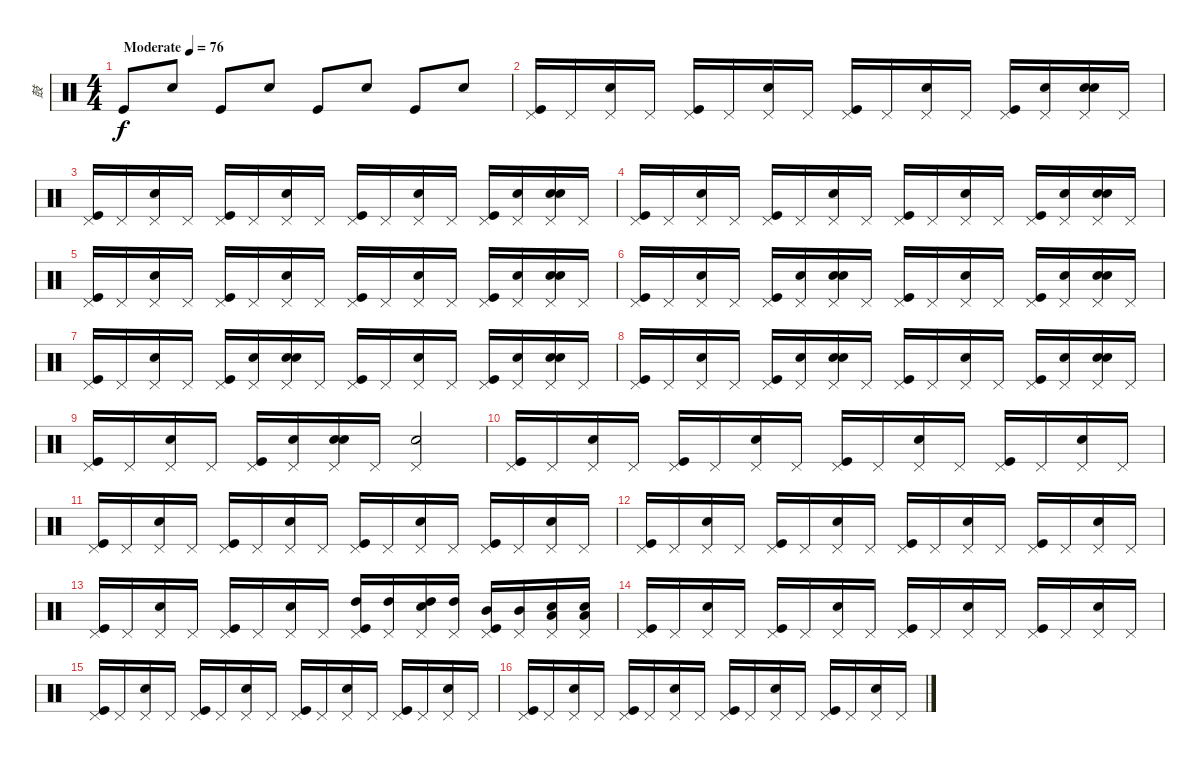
\track ("鼓" "鼓") {instrument percussion}
\staff {score}
\articulation defaults
\ts (4 4)
\tempo (76 "Moderate")
\clef neutral
\ks c "Kick (hit)".8{dy f} "Snare (hit) 2".8 "Kick (hit)".8 "Snare (hit) 2".8 "Kick (hit)".8 "Snare (hit) 2".8 "Kick (hit)".8 "Snare (hit) 2".8
|
("Pedal Hi-Hat (hit)" "Kick (hit)").16 "Pedal Hi-Hat (hit)".16 ("Pedal Hi-Hat (hit)" "Snare (hit) 2").16 "Pedal Hi-Hat (hit)".16 ("Pedal Hi-Hat (hit)" "Kick (hit)").16 "Pedal Hi-Hat (hit)".16 ("Pedal Hi-Hat (hit)" "Snare (hit) 2").16 "Pedal Hi-Hat (hit)".16 ("Pedal Hi-Hat (hit)" "Kick (hit)").16 "Pedal Hi-Hat (hit)".16 ("Pedal Hi-Hat (hit)" "Snare (hit) 2").16 "Pedal Hi-Hat (hit)".16 ("Pedal Hi-Hat (hit)" "Kick (hit)").16 ("Pedal Hi-Hat (hit)" "Hand Clap (hit)").16 ("Pedal Hi-Hat (hit)" "Hand Clap (hit)" "Snare (hit) 2").16 "Pedal Hi-Hat (hit)".16 |
("Pedal Hi-Hat (hit)" "Kick (hit)").16 "Pedal Hi-Hat (hit)".16 ("Pedal Hi-Hat (hit)" "Snare (hit) 2").16 "Pedal Hi-Hat (hit)".16 ("Pedal Hi-Hat (hit)" "Kick (hit)").16 "Pedal Hi-Hat (hit)".16 ("Pedal Hi-Hat (hit)" "Snare (hit) 2").16 "Pedal Hi-Hat (hit)".16 ("Pedal Hi-Hat (hit)" "Kick (hit)").16 "Pedal Hi-Hat (hit)".16 ("Pedal Hi-Hat (hit)" "Snare (hit) 2").16 "Pedal Hi-Hat (hit)".16 ("Pedal Hi-Hat (hit)" "Kick (hit)").16 ("Pedal Hi-Hat (hit)" "Hand Clap (hit)").16 ("Pedal Hi-Hat (hit)" "Hand Clap (hit)" "Snare (hit) 2").16 "Pedal Hi-Hat (hit)".16 |
("Pedal Hi-Hat (hit)" "Kick (hit)").16 "Pedal Hi-Hat (hit)".16 ("Pedal Hi-Hat (hit)" "Snare (hit) 2").16 "Pedal Hi-Hat (hit)".16 ("Pedal Hi-Hat (hit)" "Kick (hit)").16 "Pedal Hi-Hat (hit)".16 ("Pedal Hi-Hat (hit)" "Snare (hit) 2").16 "Pedal Hi-Hat (hit)".16 ("Pedal Hi-Hat (hit)" "Kick (hit)").16 "Pedal Hi-Hat (hit)".16 ("Pedal Hi-Hat (hit)" "Snare (hit) 2").16 "Pedal Hi-Hat (hit)".16 ("Pedal Hi-Hat (hit)" "Kick (hit)").16 ("Pedal Hi-Hat (hit)" "Hand Clap (hit)").16 ("Pedal Hi-Hat (hit)" "Hand Clap (hit)" "Snare (hit) 2").16 "Pedal Hi-Hat (hit)".16 |
("Pedal Hi-Hat (hit)" "Kick (hit)").16 "Pedal Hi-Hat (hit)".16 ("Pedal Hi-Hat (hit)" "Snare (hit) 2").16 "Pedal Hi-Hat (hit)".16 ("Pedal Hi-Hat (hit)" "Kick (hit)").16 "Pedal Hi-Hat (hit)".16 ("Pedal Hi-Hat (hit)" "Snare (hit) 2").16 "Pedal Hi-Hat (hit)".16 ("Pedal Hi-Hat (hit)" "Kick (hit)").16 "Pedal Hi-Hat (hit)".16 ("Pedal Hi-Hat (hit)" "Snare (hit) 2").16 "Pedal Hi-Hat (hit)".16 ("Pedal Hi-Hat (hit)" "Kick (hit)").16 ("Pedal Hi-Hat (hit)" "Hand Clap (hit)").16 ("Pedal Hi-Hat (hit)" "Hand Clap (hit)" "Snare (hit) 2").16 "Pedal Hi-Hat (hit)".16 |
("Pedal Hi-Hat (hit)" "Kick (hit)").16 "Pedal Hi-Hat (hit)".16 ("Pedal Hi-Hat (hit)" "Snare (hit) 2").16 "Pedal Hi-Hat (hit)".16 ("Pedal Hi-Hat (hit)" "Kick (hit)").16 ("Pedal Hi-Hat (hit)" "Hand Clap (hit)").16 ("Pedal Hi-Hat (hit)" "Hand Clap (hit)" "Snare (hit) 2").16 "Pedal Hi-Hat (hit)".16 ("Pedal Hi-Hat (hit)" "Kick (hit)").16 "Pedal Hi-Hat (hit)".16 ("Pedal Hi-Hat (hit)" "Snare (hit) 2").16 "Pedal Hi-Hat (hit)".16 ("Pedal Hi-Hat (hit)" "Kick (hit)").16 ("Pedal Hi-Hat (hit)" "Hand Clap (hit)").16 ("Pedal Hi-Hat (hit)" "Hand Clap (hit)" "Snare (hit) 2").16 "Pedal Hi-Hat (hit)".16 |
("Pedal Hi-Hat (hit)" "Kick (hit)").16 "Pedal Hi-Hat (hit)".16 ("Pedal Hi-Hat (hit)" "Snare (hit) 2").16 "Pedal Hi-Hat (hit)".16 ("Pedal Hi-Hat (hit)" "Kick (hit)").16 ("Pedal Hi-Hat (hit)" "Hand Clap (hit)").16 ("Pedal Hi-Hat (hit)" "Hand Clap (hit)" "Snare (hit) 2").16 "Pedal Hi-Hat (hit)".16 ("Pedal Hi-Hat (hit)" "Kick (hit)").16 "Pedal Hi-Hat (hit)".16 ("Pedal Hi-Hat (hit)" "Snare (hit) 2").16 "Pedal Hi-Hat (hit)".16 ("Pedal Hi-Hat (hit)" "Kick (hit)").16 ("Pedal Hi-Hat (hit)" "Hand Clap (hit)").16 ("Pedal Hi-Hat (hit)" "Hand Clap (hit)" "Snare (hit) 2").16 "Pedal Hi-Hat (hit)".16 |
("Pedal Hi-Hat (hit)" "Kick (hit)").16 "Pedal Hi-Hat (hit)".16 ("Pedal Hi-Hat (hit)" "Snare (hit) 2").16 "Pedal Hi-Hat (hit)".16 ("Pedal Hi-Hat (hit)" "Kick (hit)").16 ("Pedal Hi-Hat (hit)" "Hand Clap (hit)").16 ("Pedal Hi-Hat (hit)" "Hand Clap (hit)" "Snare (hit) 2").16 "Pedal Hi-Hat (hit)".16 ("Pedal Hi-Hat (hit)" "Kick (hit)").16 "Pedal Hi-Hat (hit)".16 ("Pedal Hi-Hat (hit)" "Snare (hit) 2").16 "Pedal Hi-Hat (hit)".16 ("Pedal Hi-Hat (hit)" "Kick (hit)").16 ("Pedal Hi-Hat (hit)" "Hand Clap (hit)").16 ("Pedal Hi-Hat (hit)" "Hand Clap (hit)" "Snare (hit) 2").16 "Pedal Hi-Hat (hit)".16 |
("Pedal Hi-Hat (hit)" "Kick (hit)").16 "Pedal Hi-Hat (hit)".16 ("Pedal Hi-Hat (hit)" "Snare (hit) 2").16 "Pedal Hi-Hat (hit)".16 ("Pedal Hi-Hat (hit)" "Kick (hit)").16 ("Pedal Hi-Hat (hit)" "Hand Clap (hit)").16 ("Pedal Hi-Hat (hit)" "Hand Clap (hit)" "Snare (hit) 2").16 "Pedal Hi-Hat (hit)".16 ("Pedal Hi-Hat (hit)" "Snare (hit) 2").2 |
("Pedal Hi-Hat (hit)" "Kick (hit)").16 "Pedal Hi-Hat (hit)".16 ("Pedal Hi-Hat (hit)" "Snare (hit) 2").16 "Pedal Hi-Hat (hit)".16 ("Pedal Hi-Hat (hit)" "Kick (hit)").16 "Pedal Hi-Hat (hit)".16 ("Pedal Hi-Hat (hit)" "Snare (hit) 2").16 "Pedal Hi-Hat (hit)".16 ("Pedal Hi-Hat (hit)" "Kick (hit)").16 "Pedal Hi-Hat (hit)".16 ("Pedal Hi-Hat (hit)" "Snare (hit) 2").16 "Pedal Hi-Hat (hit)".16 ("Pedal Hi-Hat (hit)" "Kick (hit)").16 "Pedal Hi-Hat (hit)".16 ("Pedal Hi-Hat (hit)" "Snare (hit) 2").16 "Pedal Hi-Hat (hit)".16 |
("Pedal Hi-Hat (hit)" "Kick (hit)").16 "Pedal Hi-Hat (hit)".16 ("Pedal Hi-Hat (hit)" "Snare (hit) 2").16 "Pedal Hi-Hat (hit)".16 ("Pedal Hi-Hat (hit)" "Kick (hit)").16 "Pedal Hi-Hat (hit)".16 ("Pedal Hi-Hat (hit)" "Snare (hit) 2").16 "Pedal Hi-Hat (hit)".16 ("Pedal Hi-Hat (hit)" "Kick (hit)").16 "Pedal Hi-Hat (hit)".16 ("Pedal Hi-Hat (hit)" "Snare (hit) 2").16 "Pedal Hi-Hat (hit)".16 ("Pedal Hi-Hat (hit)" "Kick (hit)").16 "Pedal Hi-Hat (hit)".16 ("Pedal Hi-Hat (hit)" "Snare (hit) 2").16 "Pedal Hi-Hat (hit)".16 |
("Pedal Hi-Hat (hit)" "Kick (hit)").16 "Pedal Hi-Hat (hit)".16 ("Pedal Hi-Hat (hit)" "Snare (hit) 2").16 "Pedal Hi-Hat (hit)".16 ("Pedal Hi-Hat (hit)" "Kick (hit)").16 "Pedal Hi-Hat (hit)".16 ("Pedal Hi-Hat (hit)" "Snare (hit) 2").16 "Pedal Hi-Hat (hit)".16 ("Pedal Hi-Hat (hit)" "Kick (hit)").16 "Pedal Hi-Hat (hit)".16 ("Pedal Hi-Hat (hit)" "Snare (hit) 2").16 "Pedal Hi-Hat (hit)".16 ("Pedal Hi-Hat (hit)" "Kick (hit)").16 "Pedal Hi-Hat (hit)".16 ("Pedal Hi-Hat (hit)" "Snare (hit) 2").16 "Pedal Hi-Hat (hit)".16 |
("Pedal Hi-Hat (hit)" "Kick (hit)").16 "Pedal Hi-Hat (hit)".16 ("Pedal Hi-Hat (hit)" "Snare (hit) 2").16 "Pedal Hi-Hat (hit)".16 ("Pedal Hi-Hat (hit)" "Kick (hit)").16 "Pedal Hi-Hat (hit)".16 ("Pedal Hi-Hat (hit)" "Snare (hit) 2").16 "Pedal Hi-Hat (hit)".16 ("Pedal Hi-Hat (hit)" "High Tom (hit)" "Kick (hit)").16 ("Pedal Hi-Hat (hit)" "High Tom (hit)").16 ("Pedal Hi-Hat (hit)" "High Tom (hit)" "Snare (hit) 2").16 ("Pedal Hi-Hat (hit)" "High Tom (hit)").16 ("Pedal Hi-Hat (hit)" "Mid Tom (hit)" "Kick (hit)").16 ("Pedal Hi-Hat (hit)" "Mid Tom (hit)").16 ("Pedal Hi-Hat (hit)" "Low Tom (hit)" "Snare (hit) 2").16 ("Pedal Hi-Hat (hit)" "Low Tom (hit)" "Snare (hit) 2").16 |
("Pedal Hi-Hat (hit)" "Kick (hit)").16 "Pedal Hi-Hat (hit)".16 ("Pedal Hi-Hat (hit)" "Snare (hit) 2").16 "Pedal Hi-Hat (hit)".16 ("Pedal Hi-Hat (hit)" "Kick (hit)").16 "Pedal Hi-Hat (hit)".16 ("Pedal Hi-Hat (hit)" "Snare (hit) 2").16 "Pedal Hi-Hat (hit)".16 ("Pedal Hi-Hat (hit)" "Kick (hit)").16 "Pedal Hi-Hat (hit)".16 ("Pedal Hi-Hat (hit)" "Snare (hit) 2").16 "Pedal Hi-Hat (hit)".16 ("Pedal Hi-Hat (hit)" "Kick (hit)").16 "Pedal Hi-Hat (hit)".16 ("Pedal Hi-Hat (hit)" "Snare (hit) 2").16 "Pedal Hi-Hat (hit)".16 |
("Pedal Hi-Hat (hit)" "Kick (hit)").16 "Pedal Hi-Hat (hit)".16 ("Pedal Hi-Hat (hit)" "Snare (hit) 2").16 "Pedal Hi-Hat (hit)".16 ("Pedal Hi-Hat (hit)" "Kick (hit)").16 "Pedal Hi-Hat (hit)".16 ("Pedal Hi-Hat (hit)" "Snare (hit) 2").16 "Pedal Hi-Hat (hit)".16 ("Pedal Hi-Hat (hit)" "Kick (hit)").16 "Pedal Hi-Hat (hit)".16 ("Pedal Hi-Hat (hit)" "Snare (hit) 2").16 "Pedal Hi-Hat (hit)".16 ("Pedal Hi-Hat (hit)" "Kick (hit)").16 "Pedal Hi-Hat (hit)".16 ("Pedal Hi-Hat (hit)" "Snare (hit) 2").16 "Pedal Hi-Hat (hit)".16 |
("Pedal Hi-Hat (hit)" "Kick (hit)").16 "Pedal Hi-Hat (hit)".16 ("Pedal Hi-Hat (hit)" "Snare (hit) 2").16 "Pedal Hi-Hat (hit)".16 ("Pedal Hi-Hat (hit)" "Kick (hit)").16 "Pedal Hi-Hat (hit)".16 ("Pedal Hi-Hat (hit)" "Snare (hit) 2").16 "Pedal Hi-Hat (hit)".16 ("Pedal Hi-Hat (hit)" "Kick (hit)").16 "Pedal Hi-Hat (hit)".16 ("Pedal Hi-Hat (hit)" "Snare (hit) 2").16 "Pedal Hi-Hat (hit)".16 ("Pedal Hi-Hat (hit)" "Kick (hit)").16 "Pedal Hi-Hat (hit)".16 ("Pedal Hi-Hat (hit)" "Snare (hit) 2").16 "Pedal Hi-Hat (hit)".16
